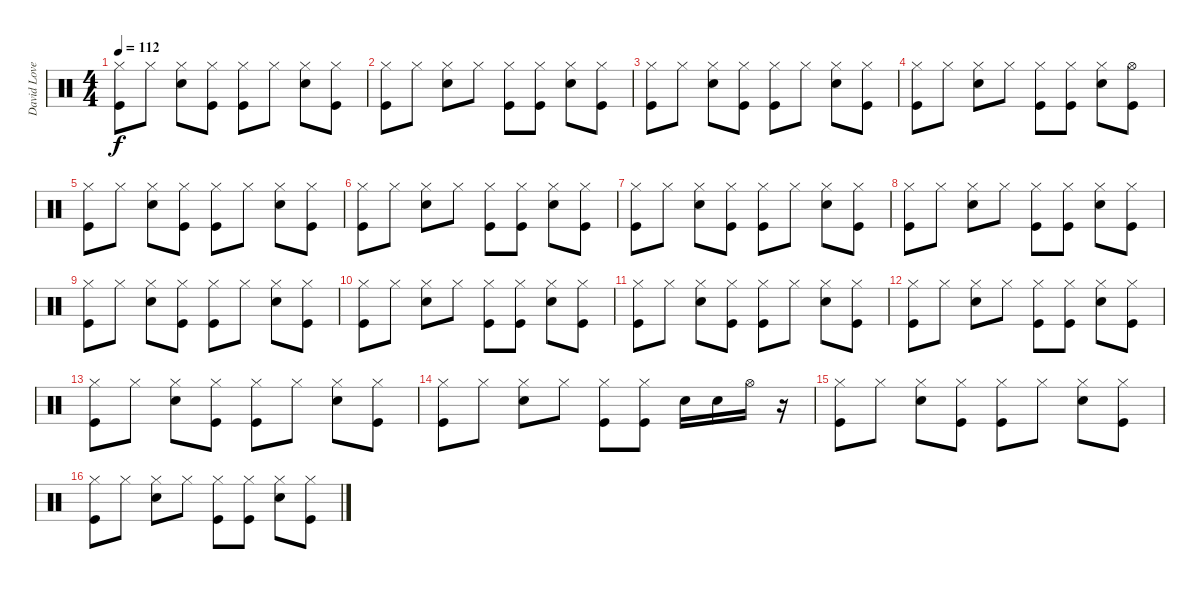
\track ("David Lovering" "David Love") {instrument percussion}
\staff {score}
\articulation defaults
\ts (4 4)
\tempo 112
\clef neutral
\ks c
("Hi-Hat (closed)" "Kick (hit)").8{dy f} "Hi-Hat (closed)".8 ("Hi-Hat (closed)" "Snare (hit) 2").8 ("Hi-Hat (closed)" "Kick (hit)").8 ("Hi-Hat (closed)" "Kick (hit)").8 "Hi-Hat (closed)".8 ("Hi-Hat (closed)" "Snare (hit) 2").8 ("Hi-Hat (closed)" "Kick (hit)").8 |
("Hi-Hat (closed)" "Kick (hit)").8 "Hi-Hat (closed)".8 ("Hi-Hat (closed)" "Snare (hit) 2").8 "Hi-Hat (closed)".8 ("Hi-Hat (closed)" "Kick (hit)").8 ("Hi-Hat (closed)" "Kick (hit)").8 ("Hi-Hat (closed)" "Snare (hit) 2").8 ("Hi-Hat (closed)" "Kick (hit)").8 |
("Hi-Hat (closed)" "Kick (hit)").8 "Hi-Hat (closed)".8 ("Hi-Hat (closed)" "Snare (hit) 2").8 ("Hi-Hat (closed)" "Kick (hit)").8 ("Hi-Hat (closed)" "Kick (hit)").8 "Hi-Hat (closed)".8 ("Hi-Hat (closed)" "Snare (hit) 2").8 ("Hi-Hat (closed)" "Kick (hit)").8 |
("Hi-Hat (closed)" "Kick (hit)").8 "Hi-Hat (closed)".8 ("Hi-Hat (closed)" "Snare (hit) 2").8 "Hi-Hat (closed)".8 ("Hi-Hat (closed)" "Kick (hit)").8 ("Hi-Hat (closed)" "Kick (hit)").8 ("Hi-Hat (closed)" "Snare (hit) 2").8 ("Hi-Hat (open)" "Kick (hit)").8 |
("Hi-Hat (closed)" "Kick (hit)").8 "Hi-Hat (closed)".8 ("Hi-Hat (closed)" "Snare (hit) 2").8 ("Hi-Hat (closed)" "Kick (hit)").8 ("Hi-Hat (closed)" "Kick (hit)").8 "Hi-Hat (closed)".8 ("Hi-Hat (closed)" "Snare (hit) 2").8 ("Hi-Hat (closed)" "Kick (hit)").8 |
("Hi-Hat (closed)" "Kick (hit)").8 "Hi-Hat (closed)".8 ("Hi-Hat (closed)" "Snare (hit) 2").8 "Hi-Hat (closed)".8 ("Hi-Hat (closed)" "Kick (hit)").8 ("Hi-Hat (closed)" "Kick (hit)").8 ("Hi-Hat (closed)" "Snare (hit) 2").8 ("Hi-Hat (closed)" "Kick (hit)").8 |
("Hi-Hat (closed)" "Kick (hit)").8 "Hi-Hat (closed)".8 ("Hi-Hat (closed)" "Snare (hit) 2").8 ("Hi-Hat (closed)" "Kick (hit)").8 ("Hi-Hat (closed)" "Kick (hit)").8 "Hi-Hat (closed)".8 ("Hi-Hat (closed)" "Snare (hit) 2").8 ("Hi-Hat (closed)" "Kick (hit)").8 |
("Hi-Hat (closed)" "Kick (hit)").8 "Hi-Hat (closed)".8 ("Hi-Hat (closed)" "Snare (hit) 2").8 "Hi-Hat (closed)".8 ("Hi-Hat (closed)" "Kick (hit)").8 ("Hi-Hat (closed)" "Kick (hit)").8 ("Hi-Hat (closed)" "Snare (hit) 2").8 ("Hi-Hat (closed)" "Kick (hit)").8 |
("Hi-Hat (closed)" "Kick (hit)").8 "Hi-Hat (closed)".8 ("Hi-Hat (closed)" "Snare (hit) 2").8 ("Hi-Hat (closed)" "Kick (hit)").8 ("Hi-Hat (closed)" "Kick (hit)").8 "Hi-Hat (closed)".8 ("Hi-Hat (closed)" "Snare (hit) 2").8 ("Hi-Hat (closed)" "Kick (hit)").8 |
("Hi-Hat (closed)" "Kick (hit)").8 "Hi-Hat (closed)".8 ("Hi-Hat (closed)" "Snare (hit) 2").8 "Hi-Hat (closed)".8 ("Hi-Hat (closed)" "Kick (hit)").8 ("Hi-Hat (closed)" "Kick (hit)").8 ("Hi-Hat (closed)" "Snare (hit) 2").8 ("Hi-Hat (closed)" "Kick (hit)").8 |
("Hi-Hat (closed)" "Kick (hit)").8 "Hi-Hat (closed)".8 ("Hi-Hat (closed)" "Snare (hit) 2").8 ("Hi-Hat (closed)" "Kick (hit)").8 ("Hi-Hat (closed)" "Kick (hit)").8 "Hi-Hat (closed)".8 ("Hi-Hat (closed)" "Snare (hit) 2").8 ("Hi-Hat (closed)" "Kick (hit)").8 |
("Hi-Hat (closed)" "Kick (hit)").8 "Hi-Hat (closed)".8 ("Hi-Hat (closed)" "Snare (hit) 2").8 "Hi-Hat (closed)".8 ("Hi-Hat (closed)" "Kick (hit)").8 ("Hi-Hat (closed)" "Kick (hit)").8 ("Hi-Hat (closed)" "Snare (hit) 2").8 ("Hi-Hat (closed)" "Kick (hit)").8 |
("Hi-Hat (closed)" "Kick (hit)").8 "Hi-Hat (closed)".8 ("Hi-Hat (closed)" "Snare (hit) 2").8 ("Hi-Hat (closed)" "Kick (hit)").8 ("Hi-Hat (closed)" "Kick (hit)").8 "Hi-Hat (closed)".8 ("Hi-Hat (closed)" "Snare (hit) 2").8 ("Hi-Hat (closed)" "Kick (hit)").8 |
("Hi-Hat (closed)" "Kick (hit)").8 "Hi-Hat (closed)".8 ("Hi-Hat (closed)" "Snare (hit) 2").8 "Hi-Hat (closed)".8 ("Hi-Hat (closed)" "Kick (hit)").8 ("Hi-Hat (closed)" "Kick (hit)").8 "Snare (hit) 2".16 "Snare (hit) 2".16 "Hi-Hat (open)".16 r.16 |
\section ("" "")
("Hi-Hat (closed)" "Kick (hit)").8 "Hi-Hat (closed)".8 ("Hi-Hat (closed)" "Snare (hit) 2").8 ("Hi-Hat (closed)" "Kick (hit)").8 ("Hi-Hat (closed)" "Kick (hit)").8 "Hi-Hat (closed)".8 ("Hi-Hat (closed)" "Snare (hit) 2").8 ("Hi-Hat (closed)" "Kick (hit)").8 |
("Hi-Hat (closed)" "Kick (hit)").8 "Hi-Hat (closed)".8 ("Hi-Hat (closed)" "Snare (hit) 2").8 "Hi-Hat (closed)".8 ("Hi-Hat (closed)" "Kick (hit)").8 ("Hi-Hat (closed)" "Kick (hit)").8 ("Hi-Hat (closed)" "Snare (hit) 2").8 ("Hi-Hat (closed)" "Kick (hit)").8
